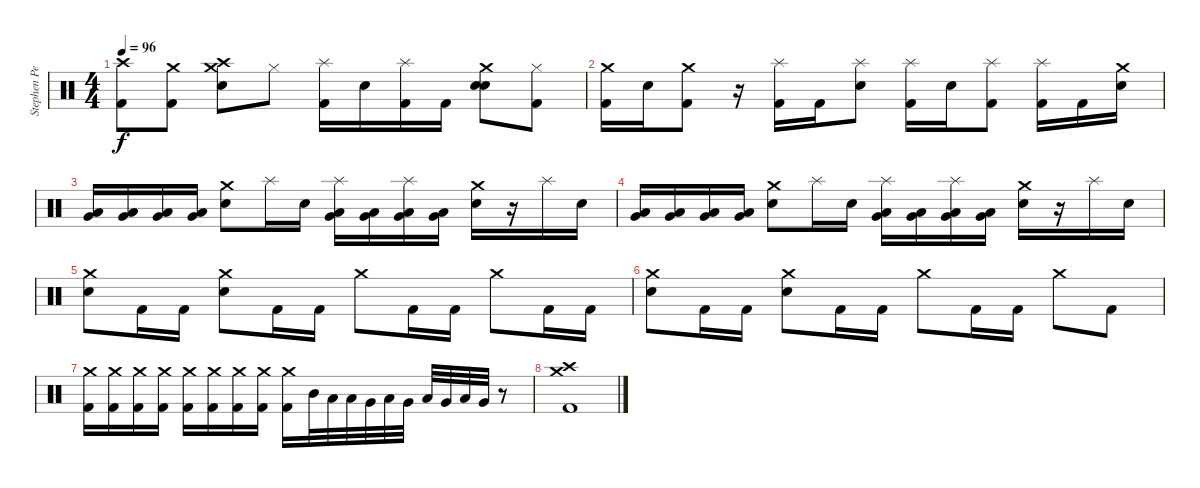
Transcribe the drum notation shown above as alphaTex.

\track ("Stephen Perkins Drums" "Stephen Pe") {instrument percussion}
\staff {score}
\articulation defaults
\ts (4 4)
\tempo 96
\clef neutral
\ks c
("Crash high (hit)" "Kick (hit) 2").8{dy f} ("Crash medium (hit)" "Kick (hit) 2").8 ("Crash high (hit)" "Crash medium (hit)" "Electric Snare (hit)").8 "Hi-Hat (closed)".8 ("Splash (hit)" "Kick (hit) 2").16 "Electric Snare (hit)".16 ("Splash (hit)" "Kick (hit) 2").16 "Kick (hit) 2".16 ("Crash medium (hit)" "Snare (hit) 2" "Electric Snare (hit)").8 ("Hi-Hat (closed)" "Kick (hit) 2").8 |
("Crash medium (hit)" "Kick (hit) 2").16 "Electric Snare (hit)".16 ("Crash medium (hit)" "Kick (hit) 2").8 r.16 ("Splash (hit)" "Kick (hit) 2").16 "Kick (hit) 2".16 ("Splash (hit)" "Electric Snare (hit)").8 ("Splash (hit)" "Kick (hit) 2").16 "Electric Snare (hit)".16 ("Splash (hit)" "Kick (hit) 2").8 ("Splash (hit)" "Kick (hit) 2").16 "Kick (hit) 2".16 ("Crash medium (hit)" "Electric Snare (hit)").16 |
("Very Low Tom (hit)" "Low Tom (hit)").16 ("Very Low Tom (hit)" "Low Tom (hit)").16 ("Very Low Tom (hit)" "Low Tom (hit)").16 ("Very Low Tom (hit)" "Low Tom (hit)").16 ("Crash medium (hit)" "Electric Snare (hit)").8 "Splash (hit)".16 "Electric Snare (hit)".16 ("Splash (hit)" "Very Low Tom (hit)" "Low Tom (hit)").16 ("Low Tom (hit)" "Very Low Tom (hit)").16 ("Splash (hit)" "Very Low Tom (hit)" "Low Tom (hit)").16 ("Very Low Tom (hit)" "Low Tom (hit)").16 ("Crash medium (hit)" "Electric Snare (hit)").16 r.16 "Splash (hit)".16 "Electric Snare (hit)".16 |
("Very Low Tom (hit)" "Low Tom (hit)").16 ("Very Low Tom (hit)" "Low Tom (hit)").16 ("Very Low Tom (hit)" "Low Tom (hit)").16 ("Very Low Tom (hit)" "Low Tom (hit)").16 ("Crash medium (hit)" "Electric Snare (hit)").8 "Splash (hit)".16 "Electric Snare (hit)".16 ("Splash (hit)" "Very Low Tom (hit)" "Low Tom (hit)").16 ("Low Tom (hit)" "Very Low Tom (hit)").16 ("Splash (hit)" "Very Low Tom (hit)" "Low Tom (hit)").16 ("Very Low Tom (hit)" "Low Tom (hit)").16 ("Crash medium (hit)" "Electric Snare (hit)").16 r.16 "Splash (hit)".16 "Electric Snare (hit)".16 |
("Crash medium (hit)" "Electric Snare (hit)").8 "Kick (hit) 2".16 "Kick (hit) 2".16 ("Crash medium (hit)" "Electric Snare (hit)").8 "Kick (hit) 2".16 "Kick (hit) 2".16 "Crash medium (hit)".8 "Kick (hit) 2".16 "Kick (hit) 2".16 "Crash medium (hit)".8 "Kick (hit) 2".16 "Kick (hit) 2".16 |
("Crash medium (hit)" "Electric Snare (hit)").8 "Kick (hit) 2".16 "Kick (hit) 2".16 ("Crash medium (hit)" "Electric Snare (hit)").8 "Kick (hit) 2".16 "Kick (hit) 2".16 "Crash medium (hit)".8 "Kick (hit) 2".16 "Kick (hit) 2".16 "Crash medium (hit)".8 "Kick (hit) 2".8 |
("Crash medium (hit)" "Kick (hit) 2").16 ("Crash medium (hit)" "Kick (hit) 2").16 ("Crash medium (hit)" "Kick (hit) 2").16 ("Crash medium (hit)" "Kick (hit) 2").16 ("Crash medium (hit)" "Kick (hit) 2").16 ("Crash medium (hit)" "Kick (hit) 2").16 ("Crash medium (hit)" "Kick (hit) 2").16 ("Crash medium (hit)" "Kick (hit) 2").16 ("Crash medium (hit)" "Kick (hit) 2").16 "Mid Tom (hit)".32 "Low Tom (hit)".32 "Low Tom (hit)".32 "Very Low Tom (hit)".32 "Low Floor Tom (hit)".32 "Very Low Tom (hit)".32 "Low Tom (hit)".32 "Very Low Tom (hit)".32 "Low Floor Tom (hit)".32 "Very Low Tom (hit)".32 r.8 |
("Crash medium (hit)" "Crash high (hit)" "Kick (hit) 2").1
